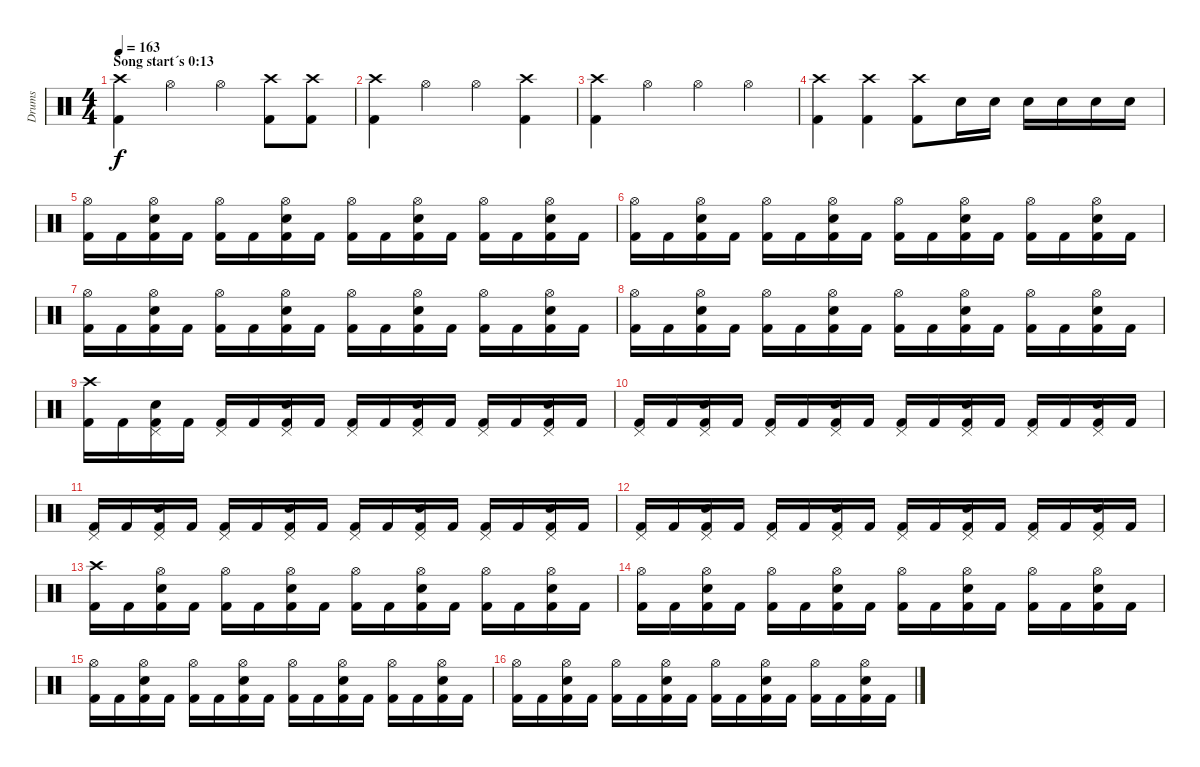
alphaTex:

\track ("Drums" "Drums") {instrument percussion}
\staff {score}
\articulation defaults
\ts (4 4)
\section ("" "Song start´s 0:13 ")
\tempo 163
\clef neutral
\ks c
("Kick (hit) 2" "Crash high (hit)").4{dy f} "Hi-Hat (open)".4 "Hi-Hat (open)".4 ("Kick (hit) 2" "Crash high (hit)").8 ("Kick (hit) 2" "Crash high (hit)").8 |
("Kick (hit) 2" "Crash high (hit)").4 "Hi-Hat (open)".4 "Hi-Hat (open)".4 ("Kick (hit) 2" "Crash high (hit)").4 |
("Kick (hit) 2" "Crash high (hit)").4 "Hi-Hat (open)".4 "Hi-Hat (open)".4 "Hi-Hat (open)".4 |
("Kick (hit) 2" "Crash high (hit)").4 ("Kick (hit) 2" "Crash high (hit)").4 ("Kick (hit) 2" "Crash high (hit)").8 "Snare (hit) 2".16 "Snare (hit) 2".16 "Snare (hit) 2".16 "Snare (hit) 2".16 "Snare (hit) 2".16 "Snare (hit) 2".16 |
("Hi-Hat (open)" "Kick (hit) 2").16 "Kick (hit) 2".16 ("Hi-Hat (open)" "Kick (hit) 2" "Snare (hit) 2").16 "Kick (hit) 2".16 ("Hi-Hat (open)" "Kick (hit) 2").16 "Kick (hit) 2".16 ("Hi-Hat (open)" "Kick (hit) 2" "Snare (hit) 2").16 "Kick (hit) 2".16 ("Hi-Hat (open)" "Kick (hit) 2").16 "Kick (hit) 2".16 ("Hi-Hat (open)" "Kick (hit) 2" "Snare (hit) 2").16 "Kick (hit) 2".16 ("Hi-Hat (open)" "Kick (hit) 2").16 "Kick (hit) 2".16 ("Hi-Hat (open)" "Kick (hit) 2" "Snare (hit) 2").16 "Kick (hit) 2".16 |
("Hi-Hat (open)" "Kick (hit) 2").16 "Kick (hit) 2".16 ("Hi-Hat (open)" "Kick (hit) 2" "Snare (hit) 2").16 "Kick (hit) 2".16 ("Hi-Hat (open)" "Kick (hit) 2").16 "Kick (hit) 2".16 ("Hi-Hat (open)" "Kick (hit) 2" "Snare (hit) 2").16 "Kick (hit) 2".16 ("Hi-Hat (open)" "Kick (hit) 2").16 "Kick (hit) 2".16 ("Hi-Hat (open)" "Kick (hit) 2" "Snare (hit) 2").16 "Kick (hit) 2".16 ("Hi-Hat (open)" "Kick (hit) 2").16 "Kick (hit) 2".16 ("Hi-Hat (open)" "Kick (hit) 2" "Snare (hit) 2").16 "Kick (hit) 2".16 |
("Hi-Hat (open)" "Kick (hit) 2").16 "Kick (hit) 2".16 ("Hi-Hat (open)" "Kick (hit) 2" "Snare (hit) 2").16 "Kick (hit) 2".16 ("Hi-Hat (open)" "Kick (hit) 2").16 "Kick (hit) 2".16 ("Hi-Hat (open)" "Kick (hit) 2" "Snare (hit) 2").16 "Kick (hit) 2".16 ("Hi-Hat (open)" "Kick (hit) 2").16 "Kick (hit) 2".16 ("Hi-Hat (open)" "Kick (hit) 2" "Snare (hit) 2").16 "Kick (hit) 2".16 ("Hi-Hat (open)" "Kick (hit) 2").16 "Kick (hit) 2".16 ("Hi-Hat (open)" "Kick (hit) 2" "Snare (hit) 2").16 "Kick (hit) 2".16 |
("Hi-Hat (open)" "Kick (hit) 2").16 "Kick (hit) 2".16 ("Hi-Hat (open)" "Kick (hit) 2" "Snare (hit) 2").16 "Kick (hit) 2".16 ("Hi-Hat (open)" "Kick (hit) 2").16 "Kick (hit) 2".16 ("Hi-Hat (open)" "Kick (hit) 2" "Snare (hit) 2").16 "Kick (hit) 2".16 ("Hi-Hat (open)" "Kick (hit) 2").16 "Kick (hit) 2".16 ("Hi-Hat (open)" "Kick (hit) 2" "Snare (hit) 2").16 "Kick (hit) 2".16 ("Hi-Hat (open)" "Kick (hit) 2").16 "Kick (hit) 2".16 ("Hi-Hat (open)" "Kick (hit) 2" "Snare (hit) 2").16 "Kick (hit) 2".16 |
("Crash high (hit)" "Kick (hit) 2").16 "Kick (hit) 2".16 ("Pedal Hi-Hat (hit)" "Kick (hit) 2" "Snare (hit) 2").16 "Kick (hit) 2".16 ("Pedal Hi-Hat (hit)" "Kick (hit) 2").16 "Kick (hit) 2".16 ("Pedal Hi-Hat (hit)" "Kick (hit) 2" "Snare (hit) 2").16 "Kick (hit) 2".16 ("Pedal Hi-Hat (hit)" "Kick (hit) 2").16 "Kick (hit) 2".16 ("Pedal Hi-Hat (hit)" "Kick (hit) 2" "Snare (hit) 2").16 "Kick (hit) 2".16 ("Pedal Hi-Hat (hit)" "Kick (hit) 2").16 "Kick (hit) 2".16 ("Pedal Hi-Hat (hit)" "Kick (hit) 2" "Snare (hit) 2").16 "Kick (hit) 2".16 |
("Pedal Hi-Hat (hit)" "Kick (hit) 2").16 "Kick (hit) 2".16 ("Pedal Hi-Hat (hit)" "Kick (hit) 2" "Snare (hit) 2").16 "Kick (hit) 2".16 ("Pedal Hi-Hat (hit)" "Kick (hit) 2").16 "Kick (hit) 2".16 ("Pedal Hi-Hat (hit)" "Kick (hit) 2" "Snare (hit) 2").16 "Kick (hit) 2".16 ("Pedal Hi-Hat (hit)" "Kick (hit) 2").16 "Kick (hit) 2".16 ("Pedal Hi-Hat (hit)" "Kick (hit) 2" "Snare (hit) 2").16 "Kick (hit) 2".16 ("Pedal Hi-Hat (hit)" "Kick (hit) 2").16 "Kick (hit) 2".16 ("Pedal Hi-Hat (hit)" "Kick (hit) 2" "Snare (hit) 2").16 "Kick (hit) 2".16 |
("Pedal Hi-Hat (hit)" "Kick (hit) 2").16 "Kick (hit) 2".16 ("Pedal Hi-Hat (hit)" "Kick (hit) 2" "Snare (hit) 2").16 "Kick (hit) 2".16 ("Pedal Hi-Hat (hit)" "Kick (hit) 2").16 "Kick (hit) 2".16 ("Pedal Hi-Hat (hit)" "Kick (hit) 2" "Snare (hit) 2").16 "Kick (hit) 2".16 ("Pedal Hi-Hat (hit)" "Kick (hit) 2").16 "Kick (hit) 2".16 ("Pedal Hi-Hat (hit)" "Kick (hit) 2" "Snare (hit) 2").16 "Kick (hit) 2".16 ("Pedal Hi-Hat (hit)" "Kick (hit) 2").16 "Kick (hit) 2".16 ("Pedal Hi-Hat (hit)" "Kick (hit) 2" "Snare (hit) 2").16 "Kick (hit) 2".16 |
("Pedal Hi-Hat (hit)" "Kick (hit) 2").16 "Kick (hit) 2".16 ("Pedal Hi-Hat (hit)" "Kick (hit) 2" "Snare (hit) 2").16 "Kick (hit) 2".16 ("Pedal Hi-Hat (hit)" "Kick (hit) 2").16 "Kick (hit) 2".16 ("Pedal Hi-Hat (hit)" "Kick (hit) 2" "Snare (hit) 2").16 "Kick (hit) 2".16 ("Pedal Hi-Hat (hit)" "Kick (hit) 2").16 "Kick (hit) 2".16 ("Pedal Hi-Hat (hit)" "Kick (hit) 2" "Snare (hit) 2").16 "Kick (hit) 2".16 ("Pedal Hi-Hat (hit)" "Kick (hit) 2").16 "Kick (hit) 2".16 ("Pedal Hi-Hat (hit)" "Kick (hit) 2" "Snare (hit) 2").16 "Kick (hit) 2".16 |
("Crash high (hit)" "Kick (hit) 2").16 "Kick (hit) 2".16 ("Hi-Hat (open)" "Kick (hit) 2" "Snare (hit) 2").16 "Kick (hit) 2".16 ("Hi-Hat (open)" "Kick (hit) 2").16 "Kick (hit) 2".16 ("Hi-Hat (open)" "Kick (hit) 2" "Snare (hit) 2").16 "Kick (hit) 2".16 ("Hi-Hat (open)" "Kick (hit) 2").16 "Kick (hit) 2".16 ("Hi-Hat (open)" "Kick (hit) 2" "Snare (hit) 2").16 "Kick (hit) 2".16 ("Hi-Hat (open)" "Kick (hit) 2").16 "Kick (hit) 2".16 ("Hi-Hat (open)" "Kick (hit) 2" "Snare (hit) 2").16 "Kick (hit) 2".16 |
("Hi-Hat (open)" "Kick (hit) 2").16 "Kick (hit) 2".16 ("Hi-Hat (open)" "Kick (hit) 2" "Snare (hit) 2").16 "Kick (hit) 2".16 ("Hi-Hat (open)" "Kick (hit) 2").16 "Kick (hit) 2".16 ("Hi-Hat (open)" "Kick (hit) 2" "Snare (hit) 2").16 "Kick (hit) 2".16 ("Hi-Hat (open)" "Kick (hit) 2").16 "Kick (hit) 2".16 ("Hi-Hat (open)" "Kick (hit) 2" "Snare (hit) 2").16 "Kick (hit) 2".16 ("Hi-Hat (open)" "Kick (hit) 2").16 "Kick (hit) 2".16 ("Hi-Hat (open)" "Kick (hit) 2" "Snare (hit) 2").16 "Kick (hit) 2".16 |
("Hi-Hat (open)" "Kick (hit) 2").16 "Kick (hit) 2".16 ("Hi-Hat (open)" "Kick (hit) 2" "Snare (hit) 2").16 "Kick (hit) 2".16 ("Hi-Hat (open)" "Kick (hit) 2").16 "Kick (hit) 2".16 ("Hi-Hat (open)" "Kick (hit) 2" "Snare (hit) 2").16 "Kick (hit) 2".16 ("Hi-Hat (open)" "Kick (hit) 2").16 "Kick (hit) 2".16 ("Hi-Hat (open)" "Kick (hit) 2" "Snare (hit) 2").16 "Kick (hit) 2".16 ("Hi-Hat (open)" "Kick (hit) 2").16 "Kick (hit) 2".16 ("Hi-Hat (open)" "Kick (hit) 2" "Snare (hit) 2").16 "Kick (hit) 2".16 |
("Hi-Hat (open)" "Kick (hit) 2").16 "Kick (hit) 2".16 ("Hi-Hat (open)" "Kick (hit) 2" "Snare (hit) 2").16 "Kick (hit) 2".16 ("Hi-Hat (open)" "Kick (hit) 2").16 "Kick (hit) 2".16 ("Hi-Hat (open)" "Kick (hit) 2" "Snare (hit) 2").16 "Kick (hit) 2".16 ("Hi-Hat (open)" "Kick (hit) 2").16 "Kick (hit) 2".16 ("Hi-Hat (open)" "Kick (hit) 2" "Snare (hit) 2").16 "Kick (hit) 2".16 ("Hi-Hat (open)" "Kick (hit) 2").16 "Kick (hit) 2".16 ("Hi-Hat (open)" "Kick (hit) 2" "Snare (hit) 2").16 "Kick (hit) 2".16
